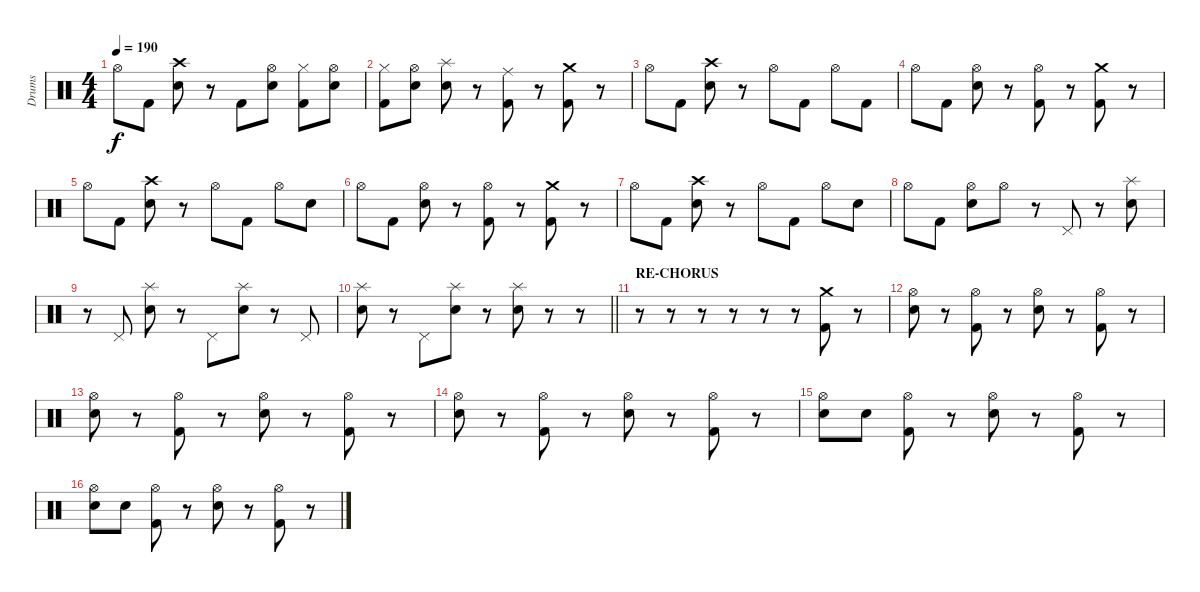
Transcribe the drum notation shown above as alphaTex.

\track ("Drums" "Drums") {instrument percussion}
\staff {score}
\articulation defaults
\ts (4 4)
\tempo 190
\clef neutral
\ks c "Hi-Hat (open)".8{dy f} "Kick (hit) 2".8
("Snare (hit) 2" "Crash high (hit)").8 r.8 "Kick (hit) 2".8 ("Snare (hit) 2" "Hi-Hat (open)").8 ("Kick (hit) 2" "Hi-Hat (closed)").8 ("Snare (hit) 2" "Hi-Hat (open)").8 |
("Kick (hit) 2" "Hi-Hat (closed)").8 ("Snare (hit) 2" "Hi-Hat (open)").8 ("Snare (hit) 2" "Splash (hit)").8 r.8 ("Kick (hit) 2" "Ride (middle)").8 r.8 ("Kick (hit) 2" "Crash medium (hit)").8 r.8 |
"Hi-Hat (open)".8 "Kick (hit) 2".8 ("Snare (hit) 2" "Crash high (hit)").8 r.8 "Hi-Hat (open)".8 "Kick (hit) 2".8 "Hi-Hat (open)".8 "Kick (hit) 2".8 |
"Hi-Hat (open)".8 "Kick (hit) 2".8 ("Snare (hit) 2" "Hi-Hat (open)").8 r.8 ("Kick (hit) 2" "Hi-Hat (open)").8 r.8 ("Kick (hit) 2" "Crash medium (hit)").8 r.8 |
"Hi-Hat (open)".8 "Kick (hit) 2".8 ("Snare (hit) 2" "Crash high (hit)").8 r.8 "Hi-Hat (open)".8 "Kick (hit) 2".8 "Hi-Hat (open)".8 "Snare (hit) 2".8 |
"Hi-Hat (open)".8 "Kick (hit) 2".8 ("Snare (hit) 2" "Hi-Hat (open)").8 r.8 ("Kick (hit) 2" "Hi-Hat (open)").8 r.8 ("Kick (hit) 2" "Crash medium (hit)").8 r.8 |
"Hi-Hat (open)".8 "Kick (hit) 2".8 ("Snare (hit) 2" "Crash high (hit)").8 r.8 "Hi-Hat (open)".8 "Kick (hit) 2".8 "Hi-Hat (open)".8 "Snare (hit) 2".8 |
"Hi-Hat (open)".8 "Kick (hit) 2".8 ("Snare (hit) 2" "Hi-Hat (open)").8 "Hi-Hat (open)".8 r.8 "Pedal Hi-Hat (hit)".8 r.8 ("Snare (hit) 2" "Splash (hit)").8 |
r.8 "Pedal Hi-Hat (hit)".8 ("Snare (hit) 2" "Splash (hit)").8 r.8 "Pedal Hi-Hat (hit)".8 ("Snare (hit) 2" "Splash (hit)").8 r.8 "Pedal Hi-Hat (hit)".8 |
\barLineRight lightlight
("Snare (hit) 2" "Splash (hit)").8 r.8 "Pedal Hi-Hat (hit)".8 ("Snare (hit) 2" "Splash (hit)").8 r.8 ("Snare (hit) 2" "Splash (hit)").8 r.8 r.8 |
\section ("" "RE-CHORUS")
r.8 r.8 r.8 r.8 r.8 r.8 ("Kick (hit) 2" "Crash medium (hit)").8 r.8 |
("Snare (hit) 2" "Hi-Hat (open)").8 r.8 ("Kick (hit) 2" "Hi-Hat (open)").8 r.8 ("Snare (hit) 2" "Hi-Hat (open)").8 r.8 ("Kick (hit) 2" "Hi-Hat (open)").8 r.8 |
("Snare (hit) 2" "Hi-Hat (open)").8 r.8 ("Kick (hit) 2" "Hi-Hat (open)").8 r.8 ("Snare (hit) 2" "Hi-Hat (open)").8 r.8 ("Kick (hit) 2" "Hi-Hat (open)").8 r.8 |
("Snare (hit) 2" "Hi-Hat (open)").8 r.8 ("Kick (hit) 2" "Hi-Hat (open)").8 r.8 ("Snare (hit) 2" "Hi-Hat (open)").8 r.8 ("Kick (hit) 2" "Hi-Hat (open)").8 r.8 |
("Snare (hit) 2" "Hi-Hat (open)").8 "Snare (hit) 2".8 ("Kick (hit) 2" "Hi-Hat (open)").8 r.8 ("Snare (hit) 2" "Hi-Hat (open)").8 r.8 ("Kick (hit) 2" "Hi-Hat (open)").8 r.8 |
("Snare (hit) 2" "Hi-Hat (open)").8 "Snare (hit) 2".8 ("Kick (hit) 2" "Hi-Hat (open)").8 r.8 ("Snare (hit) 2" "Hi-Hat (open)").8 r.8 ("Kick (hit) 2" "Hi-Hat (open)").8 r.8
